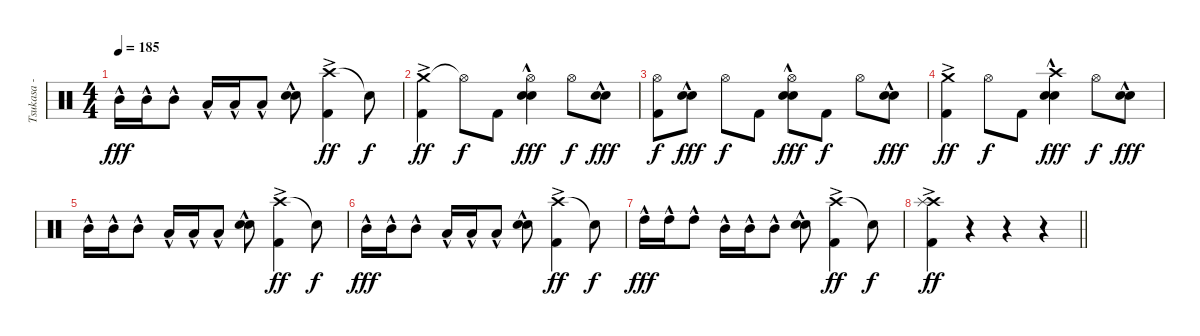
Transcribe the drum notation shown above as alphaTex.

\track ("Tsukasa - Drums" "Tsukasa - ") {instrument percussion}
\staff {score}
\articulation defaults
\ts (4 4)
\tempo 185
\clef neutral
\ks c "Mid Tom (hit)"{hac}.16{dy fff} "Mid Tom (hit)"{hac}.16 "Mid Tom (hit)"{hac}.8 "Low Tom (hit)"{hac}.16 "Low Tom (hit)"{hac}.16 "Low Tom (hit)"{hac}.8
("Electric Snare (hit)"{hac} "Snare (hit) 2"{hac}).8 ("Crash high (hit)"{ac} "Kick (hit) 2").4{dy ff} "Snare (hit)"{t}.8{dy f} |
("Crash medium (hit)"{ac} "Kick (hit) 2").4{dy ff} "Hi-Hat (open)"{t}.8{dy f} "Kick (hit) 2".8 ("Hi-Hat (open)" "Electric Snare (hit)"{hac} "Snare (hit) 2"{hac}).4{dy fff} "Hi-Hat (open)".8{dy f} ("Electric Snare (hit)"{hac} "Snare (hit) 2"{hac}).8{dy fff} |
("Hi-Hat (open)" "Kick (hit) 2").8{dy f} ("Electric Snare (hit)"{hac} "Snare (hit) 2"{hac}).8{dy fff} "Hi-Hat (open)".8{dy f} "Kick (hit) 2".8 ("Hi-Hat (open)" "Electric Snare (hit)"{hac} "Snare (hit) 2"{hac}).8{dy fff} "Kick (hit) 2".8{dy f} "Hi-Hat (open)".8 ("Electric Snare (hit)"{hac} "Snare (hit) 2"{hac}).8{dy fff} |
("Crash medium (hit)"{ac} "Kick (hit) 2").4{dy ff} "Hi-Hat (open)".8{dy f} "Kick (hit) 2".8 ("Crash high (hit)"{hac} "Electric Snare (hit)"{hac} "Snare (hit) 2"{hac}).4{dy fff} "Hi-Hat (open)".8{dy f} ("Electric Snare (hit)"{hac} "Snare (hit) 2"{hac}).8{dy fff} |
"Mid Tom (hit)"{hac}.16 "Mid Tom (hit)"{hac}.16 "Mid Tom (hit)"{hac}.8 "Low Tom (hit)"{hac}.16 "Low Tom (hit)"{hac}.16 "Low Tom (hit)"{hac}.8 ("Electric Snare (hit)"{hac} "Snare (hit) 2"{hac}).8 ("Crash high (hit)"{ac} "Kick (hit) 2").4{dy ff} "Snare (hit)"{t}.8{dy f} |
"Mid Tom (hit)"{hac}.16{dy fff} "Mid Tom (hit)"{hac}.16 "Mid Tom (hit)"{hac}.8 "Low Tom (hit)"{hac}.16 "Low Tom (hit)"{hac}.16 "Low Tom (hit)"{hac}.8 ("Electric Snare (hit)"{hac} "Snare (hit) 2"{hac}).8 ("Crash high (hit)"{ac} "Kick (hit) 2").4{dy ff} "Snare (hit)"{t}.8{dy f} |
"High Tom (hit)"{hac}.16{dy fff} "High Tom (hit)"{hac}.16 "High Tom (hit)"{hac}.8 "Mid Tom (hit)"{hac}.16 "Mid Tom (hit)"{hac}.16 "Mid Tom (hit)"{hac}.8 ("Electric Snare (hit)"{hac} "Snare (hit) 2"{hac}).8 ("Crash high (hit)"{ac} "Kick (hit) 2").4{dy ff} "Snare (hit)"{t}.8{dy f} |
\barLineRight lightlight
("Crash high (hit)" "Splash (hit)"{ac} "Kick (hit) 2").4{dy ff} r.4 r.4 r.4
